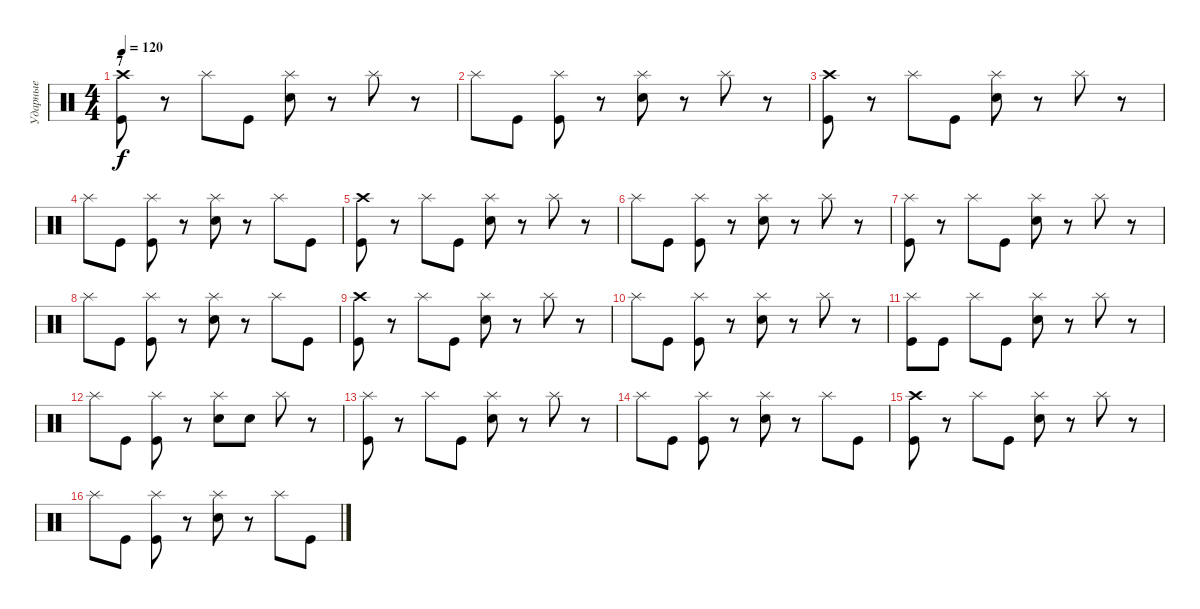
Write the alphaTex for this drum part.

\track ("Ударные" "Ударные") {instrument percussion}
\staff {score}
\articulation defaults
\ts (4 4)
\section ("" "7")
\tempo 120
\clef neutral
\ks c
("Crash high (hit)" "Kick (hit)").8{dy f} r.8 "Splash (hit)".8 "Kick (hit)".8 ("Splash (hit)" "Electric Snare (hit)").8 r.8 "Splash (hit)".8 r.8 |
"Splash (hit)".8 "Kick (hit)".8 ("Splash (hit)" "Kick (hit)").8 r.8 ("Splash (hit)" "Electric Snare (hit)").8 r.8 "Splash (hit)".8 r.8 |
("Crash high (hit)" "Kick (hit)").8 r.8 "Splash (hit)".8 "Kick (hit)".8 ("Splash (hit)" "Electric Snare (hit)").8 r.8 "Splash (hit)".8 r.8 |
"Splash (hit)".8 "Kick (hit)".8 ("Splash (hit)" "Kick (hit)").8 r.8 ("Splash (hit)" "Electric Snare (hit)").8 r.8 "Splash (hit)".8 "Kick (hit)".8 |
("Crash high (hit)" "Kick (hit)").8 r.8 "Splash (hit)".8 "Kick (hit)".8 ("Splash (hit)" "Electric Snare (hit)").8 r.8 "Splash (hit)".8 r.8 |
"Splash (hit)".8 "Kick (hit)".8 ("Splash (hit)" "Kick (hit)").8 r.8 ("Splash (hit)" "Electric Snare (hit)").8 r.8 "Splash (hit)".8 r.8 |
("Splash (hit)" "Kick (hit)").8 r.8 "Splash (hit)".8 "Kick (hit)".8 ("Splash (hit)" "Electric Snare (hit)").8 r.8 "Splash (hit)".8 r.8 |
"Splash (hit)".8 "Kick (hit)".8 ("Splash (hit)" "Kick (hit)").8 r.8 ("Splash (hit)" "Electric Snare (hit)").8 r.8 "Splash (hit)".8 "Kick (hit)".8 |
("Crash high (hit)" "Kick (hit)").8 r.8 "Splash (hit)".8 "Kick (hit)".8 ("Splash (hit)" "Electric Snare (hit)").8 r.8 "Splash (hit)".8 r.8 |
"Splash (hit)".8 "Kick (hit)".8 ("Splash (hit)" "Kick (hit)").8 r.8 ("Splash (hit)" "Electric Snare (hit)").8 r.8 "Splash (hit)".8 r.8 |
("Splash (hit)" "Kick (hit)").8 "Kick (hit)".8 "Splash (hit)".8 "Kick (hit)".8 ("Splash (hit)" "Electric Snare (hit)").8 r.8 "Splash (hit)".8 r.8 |
"Splash (hit)".8 "Kick (hit)".8 ("Splash (hit)" "Kick (hit)").8 r.8 ("Splash (hit)" "Electric Snare (hit)").8 "Electric Snare (hit)".8 "Splash (hit)".8 r.8 |
("Splash (hit)" "Kick (hit)").8 r.8 "Splash (hit)".8 "Kick (hit)".8 ("Splash (hit)" "Electric Snare (hit)").8 r.8 "Splash (hit)".8 r.8 |
"Splash (hit)".8 "Kick (hit)".8 ("Splash (hit)" "Kick (hit)").8 r.8 ("Splash (hit)" "Electric Snare (hit)").8 r.8 "Splash (hit)".8 "Kick (hit)".8 |
("Crash high (hit)" "Kick (hit)").8 r.8 "Splash (hit)".8 "Kick (hit)".8 ("Splash (hit)" "Electric Snare (hit)").8 r.8 "Splash (hit)".8 r.8 |
"Splash (hit)".8 "Kick (hit)".8 ("Splash (hit)" "Kick (hit)").8 r.8 ("Splash (hit)" "Electric Snare (hit)").8 r.8 "Splash (hit)".8 "Kick (hit)".8
